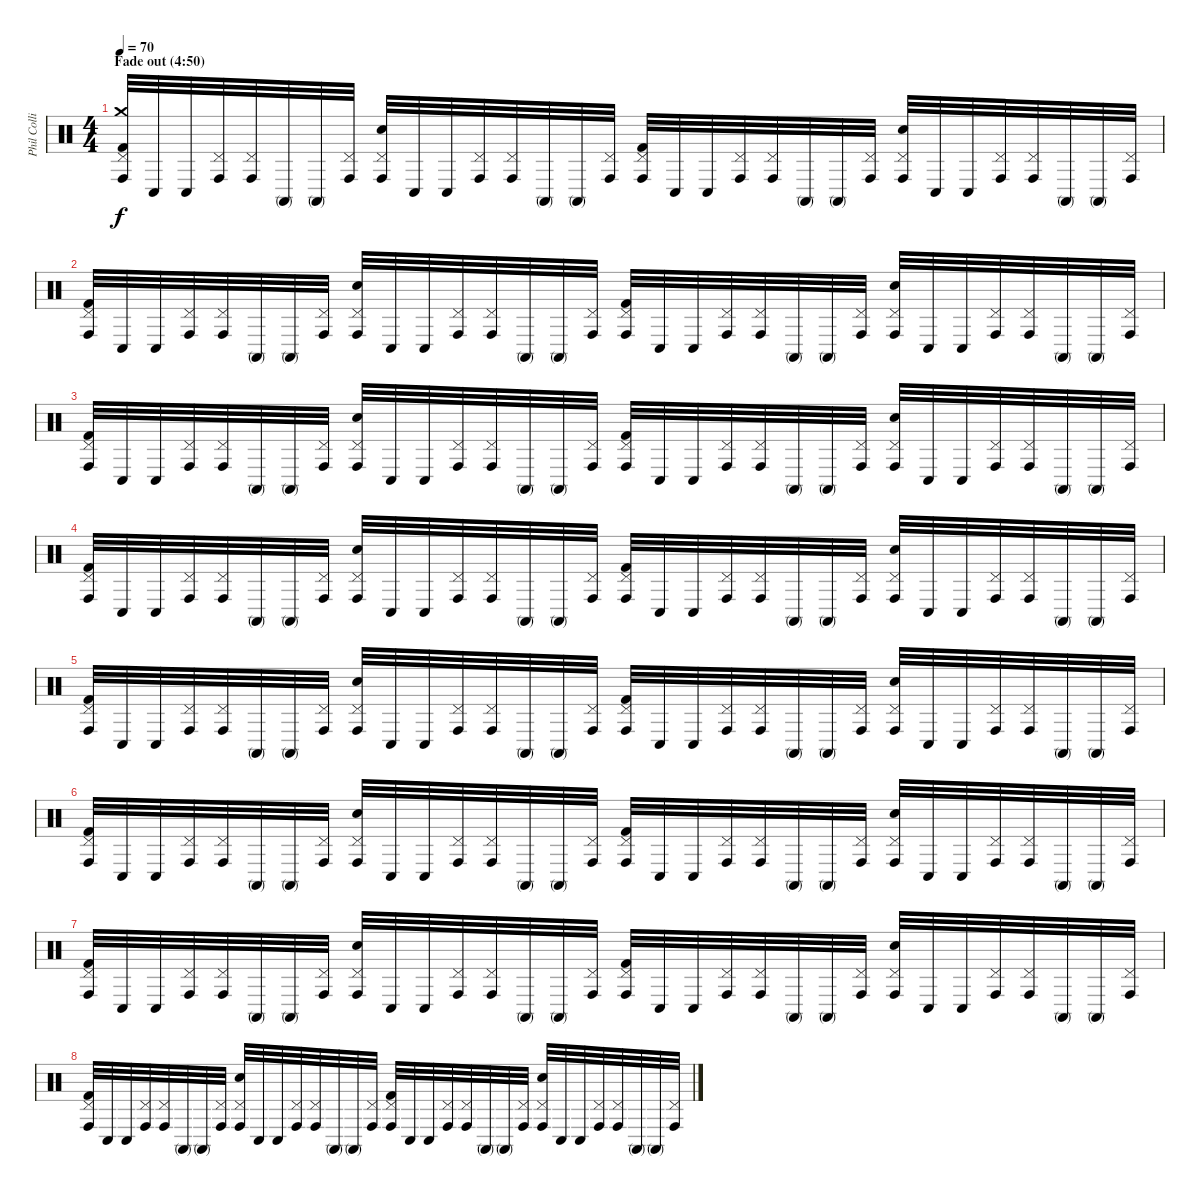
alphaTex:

\track ("Phil Collins (drums)" "Phil Colli") {instrument percussion}
\staff {score}
\articulation defaults
\ts (4 4)
\section ("" "Fade out (4:50)")
\tempo 70
\clef neutral
\ks c
("Crash medium (hit)" "Conga high (hit)" "Pedal Hi-Hat (hit)" "Kick (hit) 2").32{dy f volume 9} "Conga low (hit)".32 "Conga low (hit)".32 ("Conga high (hit)" "Pedal Hi-Hat (hit)").32 ("Conga high (hit)" "Pedal Hi-Hat (hit)").32 "Conga high (mute)".32 "Conga high (mute)".32 ("Conga high (hit)" "Pedal Hi-Hat (hit)").32 ("Conga high (hit)" "Pedal Hi-Hat (hit)" "Electric Snare (hit)").32 "Conga low (hit)".32 "Conga low (hit)".32 ("Conga high (hit)" "Pedal Hi-Hat (hit)").32 ("Conga high (hit)" "Pedal Hi-Hat (hit)").32 "Conga high (mute)".32 "Conga high (mute)".32 ("Conga high (hit)" "Pedal Hi-Hat (hit)").32 ("Conga high (hit)" "Pedal Hi-Hat (hit)" "Kick (hit) 2").32 "Conga low (hit)".32 "Conga low (hit)".32 ("Conga high (hit)" "Pedal Hi-Hat (hit)").32 ("Conga high (hit)" "Pedal Hi-Hat (hit)").32 "Conga high (mute)".32 "Conga high (mute)".32 ("Conga high (hit)" "Pedal Hi-Hat (hit)").32 ("Conga high (hit)" "Pedal Hi-Hat (hit)" "Electric Snare (hit)").32 "Conga low (hit)".32 "Conga low (hit)".32 ("Conga high (hit)" "Pedal Hi-Hat (hit)").32 ("Conga high (hit)" "Pedal Hi-Hat (hit)").32 "Conga high (mute)".32 "Conga high (mute)".32 ("Conga high (hit)" "Pedal Hi-Hat (hit)").32 |
("Conga high (hit)" "Pedal Hi-Hat (hit)" "Kick (hit) 2").32 "Conga low (hit)".32 "Conga low (hit)".32 ("Conga high (hit)" "Pedal Hi-Hat (hit)").32 ("Conga high (hit)" "Pedal Hi-Hat (hit)").32 "Conga high (mute)".32 "Conga high (mute)".32 ("Conga high (hit)" "Pedal Hi-Hat (hit)").32 ("Conga high (hit)" "Pedal Hi-Hat (hit)" "Electric Snare (hit)").32 "Conga low (hit)".32 "Conga low (hit)".32 ("Conga high (hit)" "Pedal Hi-Hat (hit)").32 ("Conga high (hit)" "Pedal Hi-Hat (hit)").32 "Conga high (mute)".32 "Conga high (mute)".32 ("Conga high (hit)" "Pedal Hi-Hat (hit)").32 ("Conga high (hit)" "Pedal Hi-Hat (hit)" "Kick (hit) 2").32 "Conga low (hit)".32 "Conga low (hit)".32 ("Conga high (hit)" "Pedal Hi-Hat (hit)").32 ("Conga high (hit)" "Pedal Hi-Hat (hit)").32 "Conga high (mute)".32 "Conga high (mute)".32 ("Conga high (hit)" "Pedal Hi-Hat (hit)").32 ("Conga high (hit)" "Pedal Hi-Hat (hit)" "Electric Snare (hit)").32 "Conga low (hit)".32 "Conga low (hit)".32 ("Conga high (hit)" "Pedal Hi-Hat (hit)").32 ("Conga high (hit)" "Pedal Hi-Hat (hit)").32 "Conga high (mute)".32 "Conga high (mute)".32 ("Conga high (hit)" "Pedal Hi-Hat (hit)").32 |
("Conga high (hit)" "Pedal Hi-Hat (hit)" "Kick (hit) 2").32{volume 6} "Conga low (hit)".32 "Conga low (hit)".32 ("Conga high (hit)" "Pedal Hi-Hat (hit)").32 ("Conga high (hit)" "Pedal Hi-Hat (hit)").32 "Conga high (mute)".32 "Conga high (mute)".32 ("Conga high (hit)" "Pedal Hi-Hat (hit)").32 ("Conga high (hit)" "Pedal Hi-Hat (hit)" "Electric Snare (hit)").32 "Conga low (hit)".32 "Conga low (hit)".32 ("Conga high (hit)" "Pedal Hi-Hat (hit)").32 ("Conga high (hit)" "Pedal Hi-Hat (hit)").32 "Conga high (mute)".32 "Conga high (mute)".32 ("Conga high (hit)" "Pedal Hi-Hat (hit)").32 ("Conga high (hit)" "Pedal Hi-Hat (hit)" "Kick (hit) 2").32 "Conga low (hit)".32 "Conga low (hit)".32 ("Conga high (hit)" "Pedal Hi-Hat (hit)").32 ("Conga high (hit)" "Pedal Hi-Hat (hit)").32 "Conga high (mute)".32 "Conga high (mute)".32 ("Conga high (hit)" "Pedal Hi-Hat (hit)").32 ("Conga high (hit)" "Pedal Hi-Hat (hit)" "Electric Snare (hit)").32 "Conga low (hit)".32 "Conga low (hit)".32 ("Conga high (hit)" "Pedal Hi-Hat (hit)").32 ("Conga high (hit)" "Pedal Hi-Hat (hit)").32 "Conga high (mute)".32 "Conga high (mute)".32 ("Conga high (hit)" "Pedal Hi-Hat (hit)").32 |
("Conga high (hit)" "Pedal Hi-Hat (hit)" "Kick (hit) 2").32 "Conga low (hit)".32 "Conga low (hit)".32 ("Conga high (hit)" "Pedal Hi-Hat (hit)").32 ("Conga high (hit)" "Pedal Hi-Hat (hit)").32 "Conga high (mute)".32 "Conga high (mute)".32 ("Conga high (hit)" "Pedal Hi-Hat (hit)").32 ("Conga high (hit)" "Pedal Hi-Hat (hit)" "Electric Snare (hit)").32 "Conga low (hit)".32 "Conga low (hit)".32 ("Conga high (hit)" "Pedal Hi-Hat (hit)").32 ("Conga high (hit)" "Pedal Hi-Hat (hit)").32 "Conga high (mute)".32 "Conga high (mute)".32 ("Conga high (hit)" "Pedal Hi-Hat (hit)").32 ("Conga high (hit)" "Pedal Hi-Hat (hit)" "Kick (hit) 2").32 "Conga low (hit)".32 "Conga low (hit)".32 ("Conga high (hit)" "Pedal Hi-Hat (hit)").32 ("Conga high (hit)" "Pedal Hi-Hat (hit)").32 "Conga high (mute)".32 "Conga high (mute)".32 ("Conga high (hit)" "Pedal Hi-Hat (hit)").32 ("Conga high (hit)" "Pedal Hi-Hat (hit)" "Electric Snare (hit)").32 "Conga low (hit)".32 "Conga low (hit)".32 ("Conga high (hit)" "Pedal Hi-Hat (hit)").32 ("Conga high (hit)" "Pedal Hi-Hat (hit)").32 "Conga high (mute)".32 "Conga high (mute)".32 ("Conga high (hit)" "Pedal Hi-Hat (hit)").32 |
("Conga high (hit)" "Pedal Hi-Hat (hit)" "Kick (hit) 2").32{volume 3} "Conga low (hit)".32 "Conga low (hit)".32 ("Conga high (hit)" "Pedal Hi-Hat (hit)").32 ("Conga high (hit)" "Pedal Hi-Hat (hit)").32 "Conga high (mute)".32 "Conga high (mute)".32 ("Conga high (hit)" "Pedal Hi-Hat (hit)").32 ("Conga high (hit)" "Pedal Hi-Hat (hit)" "Electric Snare (hit)").32 "Conga low (hit)".32 "Conga low (hit)".32 ("Conga high (hit)" "Pedal Hi-Hat (hit)").32 ("Conga high (hit)" "Pedal Hi-Hat (hit)").32 "Conga high (mute)".32 "Conga high (mute)".32 ("Conga high (hit)" "Pedal Hi-Hat (hit)").32 ("Conga high (hit)" "Pedal Hi-Hat (hit)" "Kick (hit) 2").32 "Conga low (hit)".32 "Conga low (hit)".32 ("Conga high (hit)" "Pedal Hi-Hat (hit)").32 ("Conga high (hit)" "Pedal Hi-Hat (hit)").32 "Conga high (mute)".32 "Conga high (mute)".32 ("Conga high (hit)" "Pedal Hi-Hat (hit)").32 ("Conga high (hit)" "Pedal Hi-Hat (hit)" "Electric Snare (hit)").32 "Conga low (hit)".32 "Conga low (hit)".32 ("Conga high (hit)" "Pedal Hi-Hat (hit)").32 ("Conga high (hit)" "Pedal Hi-Hat (hit)").32 "Conga high (mute)".32 "Conga high (mute)".32 ("Conga high (hit)" "Pedal Hi-Hat (hit)").32 |
("Conga high (hit)" "Pedal Hi-Hat (hit)" "Kick (hit) 2").32 "Conga low (hit)".32 "Conga low (hit)".32 ("Conga high (hit)" "Pedal Hi-Hat (hit)").32 ("Conga high (hit)" "Pedal Hi-Hat (hit)").32 "Conga high (mute)".32 "Conga high (mute)".32 ("Conga high (hit)" "Pedal Hi-Hat (hit)").32 ("Conga high (hit)" "Pedal Hi-Hat (hit)" "Electric Snare (hit)").32 "Conga low (hit)".32 "Conga low (hit)".32 ("Conga high (hit)" "Pedal Hi-Hat (hit)").32 ("Conga high (hit)" "Pedal Hi-Hat (hit)").32 "Conga high (mute)".32 "Conga high (mute)".32 ("Conga high (hit)" "Pedal Hi-Hat (hit)").32 ("Conga high (hit)" "Pedal Hi-Hat (hit)" "Kick (hit) 2").32 "Conga low (hit)".32 "Conga low (hit)".32 ("Conga high (hit)" "Pedal Hi-Hat (hit)").32 ("Conga high (hit)" "Pedal Hi-Hat (hit)").32 "Conga high (mute)".32 "Conga high (mute)".32 ("Conga high (hit)" "Pedal Hi-Hat (hit)").32 ("Conga high (hit)" "Pedal Hi-Hat (hit)" "Electric Snare (hit)").32 "Conga low (hit)".32 "Conga low (hit)".32 ("Conga high (hit)" "Pedal Hi-Hat (hit)").32 ("Conga high (hit)" "Pedal Hi-Hat (hit)").32 "Conga high (mute)".32 "Conga high (mute)".32 ("Conga high (hit)" "Pedal Hi-Hat (hit)").32 |
("Conga high (hit)" "Pedal Hi-Hat (hit)" "Kick (hit) 2").32{volume 0} "Conga low (hit)".32 "Conga low (hit)".32 ("Conga high (hit)" "Pedal Hi-Hat (hit)").32 ("Conga high (hit)" "Pedal Hi-Hat (hit)").32 "Conga high (mute)".32 "Conga high (mute)".32 ("Conga high (hit)" "Pedal Hi-Hat (hit)").32 ("Conga high (hit)" "Pedal Hi-Hat (hit)" "Electric Snare (hit)").32 "Conga low (hit)".32 "Conga low (hit)".32 ("Conga high (hit)" "Pedal Hi-Hat (hit)").32 ("Conga high (hit)" "Pedal Hi-Hat (hit)").32 "Conga high (mute)".32 "Conga high (mute)".32 ("Conga high (hit)" "Pedal Hi-Hat (hit)").32 ("Conga high (hit)" "Pedal Hi-Hat (hit)" "Kick (hit) 2").32 "Conga low (hit)".32 "Conga low (hit)".32 ("Conga high (hit)" "Pedal Hi-Hat (hit)").32 ("Conga high (hit)" "Pedal Hi-Hat (hit)").32 "Conga high (mute)".32 "Conga high (mute)".32 ("Conga high (hit)" "Pedal Hi-Hat (hit)").32 ("Conga high (hit)" "Pedal Hi-Hat (hit)" "Electric Snare (hit)").32 "Conga low (hit)".32 "Conga low (hit)".32 ("Conga high (hit)" "Pedal Hi-Hat (hit)").32 ("Conga high (hit)" "Pedal Hi-Hat (hit)").32 "Conga high (mute)".32 "Conga high (mute)".32 ("Conga high (hit)" "Pedal Hi-Hat (hit)").32 |
("Conga high (hit)" "Pedal Hi-Hat (hit)" "Kick (hit) 2").32 "Conga low (hit)".32 "Conga low (hit)".32 ("Conga high (hit)" "Pedal Hi-Hat (hit)").32 ("Conga high (hit)" "Pedal Hi-Hat (hit)").32 "Conga high (mute)".32 "Conga high (mute)".32 ("Conga high (hit)" "Pedal Hi-Hat (hit)").32 ("Conga high (hit)" "Pedal Hi-Hat (hit)" "Electric Snare (hit)").32 "Conga low (hit)".32 "Conga low (hit)".32 ("Conga high (hit)" "Pedal Hi-Hat (hit)").32 ("Conga high (hit)" "Pedal Hi-Hat (hit)").32 "Conga high (mute)".32 "Conga high (mute)".32 ("Conga high (hit)" "Pedal Hi-Hat (hit)").32 ("Conga high (hit)" "Pedal Hi-Hat (hit)" "Kick (hit) 2").32 "Conga low (hit)".32 "Conga low (hit)".32 ("Conga high (hit)" "Pedal Hi-Hat (hit)").32 ("Conga high (hit)" "Pedal Hi-Hat (hit)").32 "Conga high (mute)".32 "Conga high (mute)".32 ("Conga high (hit)" "Pedal Hi-Hat (hit)").32 ("Conga high (hit)" "Pedal Hi-Hat (hit)" "Electric Snare (hit)").32 "Conga low (hit)".32 "Conga low (hit)".32 ("Conga high (hit)" "Pedal Hi-Hat (hit)").32 ("Conga high (hit)" "Pedal Hi-Hat (hit)").32 "Conga high (mute)".32 "Conga high (mute)".32 ("Conga high (hit)" "Pedal Hi-Hat (hit)").32
